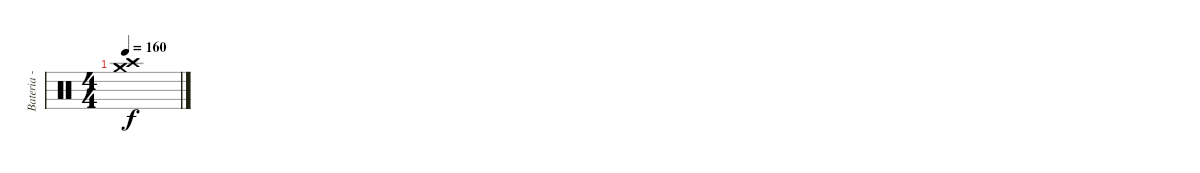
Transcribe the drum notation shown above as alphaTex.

\track ("Bateria - Larzon" "Bateria - ") {instrument percussion}
\staff {score}
\articulation defaults
\ts (4 4)
\tempo 160
\clef neutral
\ks c
("Crash high (hit)" "Crash medium (hit)").1{dy f}
